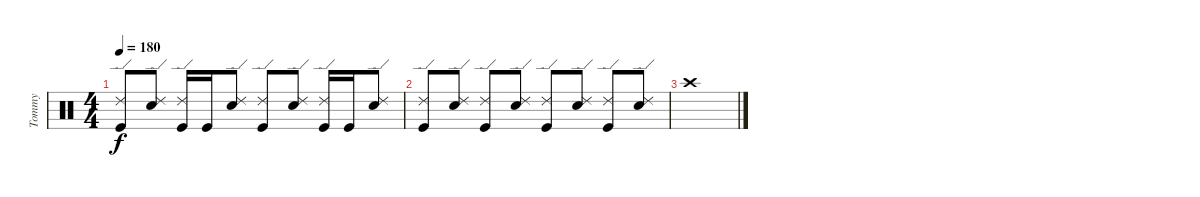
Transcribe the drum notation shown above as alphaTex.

\track ("Tommy" "Tommy") {instrument percussion}
\staff {score}
\articulation defaults
\ts (4 4)
\tempo 180
\clef neutral
\ks c
("Ride (edge) 2" "Kick (hit)").8{dy f} ("Ride (edge) 2" "Electric Snare (hit)").8 ("Ride (edge) 2" "Kick (hit)").16 "Kick (hit)".16 ("Ride (edge) 2" "Electric Snare (hit)").8 ("Ride (edge) 2" "Kick (hit)").8 ("Ride (edge) 2" "Electric Snare (hit)").8 ("Ride (edge) 2" "Kick (hit)").16 "Kick (hit)".16 ("Ride (edge) 2" "Electric Snare (hit)").8 |
("Ride (edge) 2" "Kick (hit)").8 ("Ride (edge) 2" "Electric Snare (hit)").8 ("Ride (edge) 2" "Kick (hit)").8 ("Ride (edge) 2" "Electric Snare (hit)").8 ("Ride (edge) 2" "Kick (hit)").8 ("Ride (edge) 2" "Electric Snare (hit)").8 ("Ride (edge) 2" "Kick (hit)").8 ("Ride (edge) 2" "Electric Snare (hit)").8 |
"Crash high (hit)".1
